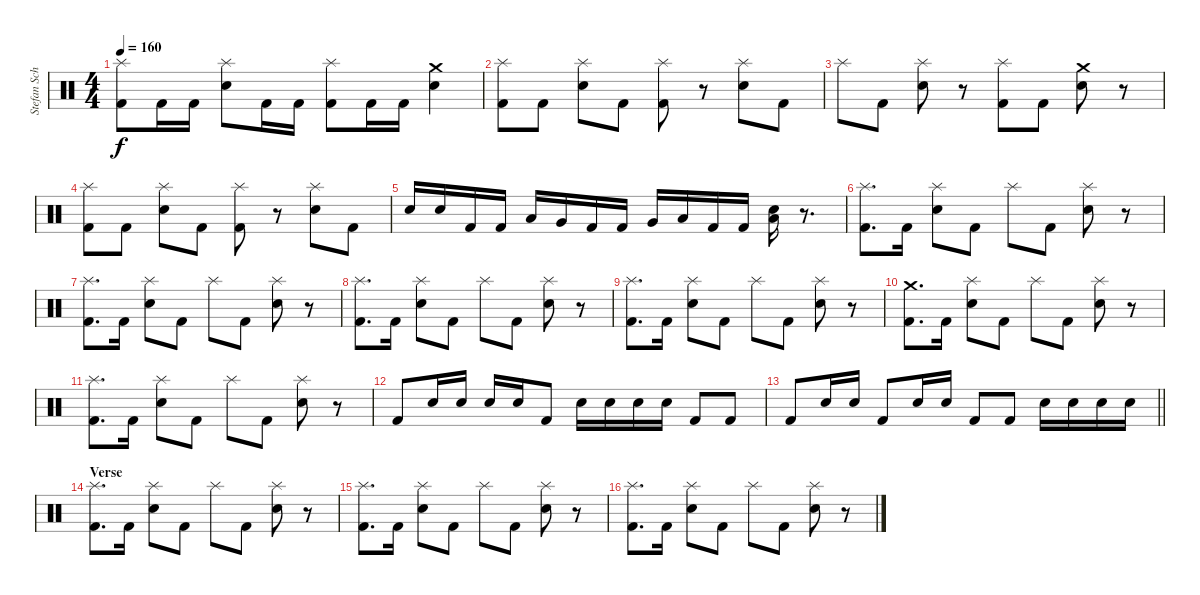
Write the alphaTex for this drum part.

\track ("Stefan Schwarzmann" "Stefan Sch") {instrument percussion}
\staff {score}
\articulation defaults
\ts (4 4)
\tempo 160
\clef neutral
\ks c
("Splash (hit)" "Kick (hit) 2").8{dy f} "Kick (hit) 2".16 "Kick (hit) 2".16 ("Splash (hit)" "Snare (hit) 2").8 "Kick (hit) 2".16 "Kick (hit) 2".16 ("Splash (hit)" "Kick (hit) 2").8 "Kick (hit) 2".16 "Kick (hit) 2".16 ("Crash medium (hit)" "Snare (hit) 2").4 |
("Splash (hit)" "Kick (hit) 2").8 "Kick (hit) 2".8 ("Splash (hit)" "Snare (hit) 2").8 "Kick (hit) 2".8 ("Splash (hit)" "Kick (hit) 2").8 r.8 ("Splash (hit)" "Snare (hit) 2").8 "Kick (hit) 2".8 |
"Splash (hit)".8 "Kick (hit) 2".8 ("Splash (hit)" "Snare (hit) 2").8 r.8 ("Splash (hit)" "Kick (hit) 2").8 "Kick (hit) 2".8 ("Crash medium (hit)" "Snare (hit) 2").8 r.8 |
("Splash (hit)" "Kick (hit) 2").8 "Kick (hit) 2".8 ("Splash (hit)" "Snare (hit) 2").8 "Kick (hit) 2".8 ("Splash (hit)" "Kick (hit) 2").8 r.8 ("Splash (hit)" "Snare (hit) 2").8 "Kick (hit) 2".8 |
"Snare (hit) 2".16 "Snare (hit) 2".16 "Kick (hit) 2".16 "Kick (hit) 2".16 "Low Tom (hit)".16 "Very Low Tom (hit)".16 "Kick (hit) 2".16 "Kick (hit) 2".16 "Very Low Tom (hit)".16 "Low Floor Tom (hit)".16 "Kick (hit) 2".16 "Kick (hit) 2".16 ("Low Floor Tom (hit)" "Snare (hit) 2").16 r.8{d} |
("Splash (hit)" "Kick (hit) 2").8{d} "Kick (hit) 2".16 ("Splash (hit)" "Snare (hit) 2").8 "Kick (hit) 2".8 "Splash (hit)".8 "Kick (hit) 2".8 ("Splash (hit)" "Snare (hit) 2").8 r.8 |
("Splash (hit)" "Kick (hit) 2").8{d} "Kick (hit) 2".16 ("Splash (hit)" "Snare (hit) 2").8 "Kick (hit) 2".8 "Splash (hit)".8 "Kick (hit) 2".8 ("Splash (hit)" "Snare (hit) 2").8 r.8 |
("Splash (hit)" "Kick (hit) 2").8{d} "Kick (hit) 2".16 ("Splash (hit)" "Snare (hit) 2").8 "Kick (hit) 2".8 "Splash (hit)".8 "Kick (hit) 2".8 ("Splash (hit)" "Snare (hit) 2").8 r.8 |
("Splash (hit)" "Kick (hit) 2").8{d} "Kick (hit) 2".16 ("Splash (hit)" "Snare (hit) 2").8 "Kick (hit) 2".8 "Splash (hit)".8 "Kick (hit) 2".8 ("Splash (hit)" "Snare (hit) 2").8 r.8 |
("Crash medium (hit)" "Kick (hit) 2").8{d} "Kick (hit) 2".16 ("Splash (hit)" "Snare (hit) 2").8 "Kick (hit) 2".8 "Splash (hit)".8 "Kick (hit) 2".8 ("Splash (hit)" "Snare (hit) 2").8 r.8 |
("Splash (hit)" "Kick (hit) 2").8{d} "Kick (hit) 2".16 ("Splash (hit)" "Snare (hit) 2").8 "Kick (hit) 2".8 "Splash (hit)".8 "Kick (hit) 2".8 ("Splash (hit)" "Snare (hit) 2").8 r.8 |
"Kick (hit) 2".8 "Snare (hit) 2".16 "Snare (hit) 2".16 "Snare (hit) 2".16 "Snare (hit) 2".16 "Kick (hit) 2".8 "Snare (hit) 2".16 "Snare (hit) 2".16 "Snare (hit) 2".16 "Snare (hit) 2".16 "Kick (hit) 2".8 "Kick (hit) 2".8 |
\barLineRight lightlight "Kick (hit) 2".8 "Snare (hit) 2".16 "Snare (hit) 2".16 "Kick (hit) 2".8 "Snare (hit) 2".16 "Snare (hit) 2".16 "Kick (hit) 2".8 "Kick (hit) 2".8 "Snare (hit) 2".16 "Snare (hit) 2".16 "Snare (hit) 2".16 "Snare (hit) 2".16
|
\section ("" "Verse")
("Splash (hit)" "Kick (hit) 2").8{d} "Kick (hit) 2".16 ("Splash (hit)" "Snare (hit) 2").8 "Kick (hit) 2".8 "Splash (hit)".8 "Kick (hit) 2".8 ("Splash (hit)" "Snare (hit) 2").8 r.8 |
("Splash (hit)" "Kick (hit) 2").8{d} "Kick (hit) 2".16 ("Splash (hit)" "Snare (hit) 2").8 "Kick (hit) 2".8 "Splash (hit)".8 "Kick (hit) 2".8 ("Splash (hit)" "Snare (hit) 2").8 r.8 |
("Splash (hit)" "Kick (hit) 2").8{d} "Kick (hit) 2".16 ("Splash (hit)" "Snare (hit) 2").8 "Kick (hit) 2".8 "Splash (hit)".8 "Kick (hit) 2".8 ("Splash (hit)" "Snare (hit) 2").8 r.8
